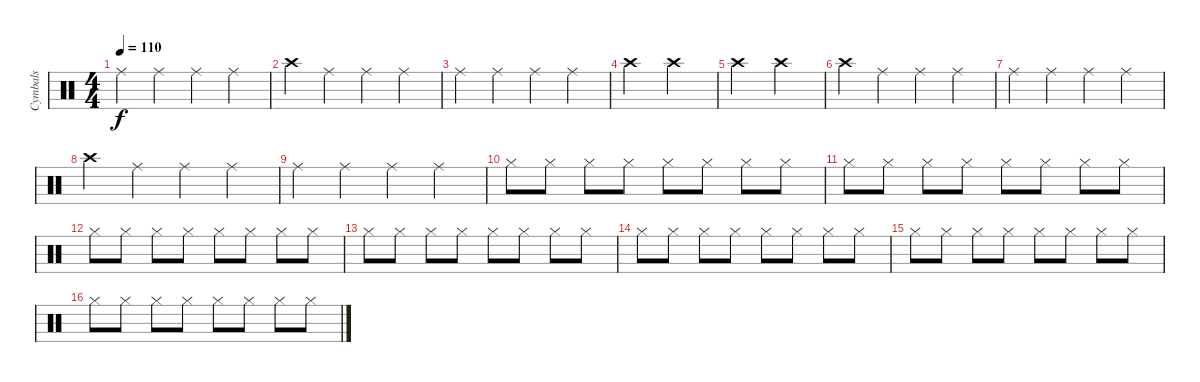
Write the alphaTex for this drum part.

\track ("Cymbals" "Cymbals") {instrument percussion}
\staff {score}
\articulation defaults
\ts (4 4)
\tempo 110
\clef neutral
\ks c "Ride (middle)".4{dy f} "Ride (middle)".4 "Ride (middle)".4 "Ride (middle)".4
|
"Crash high (hit)".4 "Ride (middle)".4 "Ride (middle)".4 "Ride (middle)".4 |
"Ride (middle)".4 "Ride (middle)".4 "Ride (middle)".4 "Ride (middle)".4 |
"Crash high (hit)".2 "Crash high (hit)".2 |
"Crash high (hit)".2 "Crash high (hit)".2 |
"Crash high (hit)".4 "Ride (middle)".4 "Ride (middle)".4 "Ride (middle)".4 |
"Ride (middle)".4 "Ride (middle)".4 "Ride (middle)".4 "Ride (middle)".4 |
"Crash high (hit)".4 "Ride (middle)".4 "Ride (middle)".4 "Ride (middle)".4 |
"Ride (middle)".4 "Ride (middle)".4 "Ride (middle)".4 "Ride (middle)".4 |
"Hi-Hat (closed)".8 "Hi-Hat (closed)".8 "Hi-Hat (closed)".8 "Hi-Hat (closed)".8 "Hi-Hat (closed)".8 "Hi-Hat (closed)".8 "Hi-Hat (closed)".8 "Hi-Hat (closed)".8 |
"Hi-Hat (closed)".8 "Hi-Hat (closed)".8 "Hi-Hat (closed)".8 "Hi-Hat (closed)".8 "Hi-Hat (closed)".8 "Hi-Hat (closed)".8 "Hi-Hat (closed)".8 "Hi-Hat (closed)".8 |
"Hi-Hat (closed)".8 "Hi-Hat (closed)".8 "Hi-Hat (closed)".8 "Hi-Hat (closed)".8 "Hi-Hat (closed)".8 "Hi-Hat (closed)".8 "Hi-Hat (closed)".8 "Hi-Hat (closed)".8 |
"Hi-Hat (closed)".8 "Hi-Hat (closed)".8 "Hi-Hat (closed)".8 "Hi-Hat (closed)".8 "Hi-Hat (closed)".8 "Hi-Hat (closed)".8 "Hi-Hat (closed)".8 "Hi-Hat (closed)".8 |
"Hi-Hat (closed)".8 "Hi-Hat (closed)".8 "Hi-Hat (closed)".8 "Hi-Hat (closed)".8 "Hi-Hat (closed)".8 "Hi-Hat (closed)".8 "Hi-Hat (closed)".8 "Hi-Hat (closed)".8 |
"Hi-Hat (closed)".8 "Hi-Hat (closed)".8 "Hi-Hat (closed)".8 "Hi-Hat (closed)".8 "Hi-Hat (closed)".8 "Hi-Hat (closed)".8 "Hi-Hat (closed)".8 "Hi-Hat (closed)".8 |
"Hi-Hat (closed)".8 "Hi-Hat (closed)".8 "Hi-Hat (closed)".8 "Hi-Hat (closed)".8 "Hi-Hat (closed)".8 "Hi-Hat (closed)".8 "Hi-Hat (closed)".8 "Hi-Hat (closed)".8
